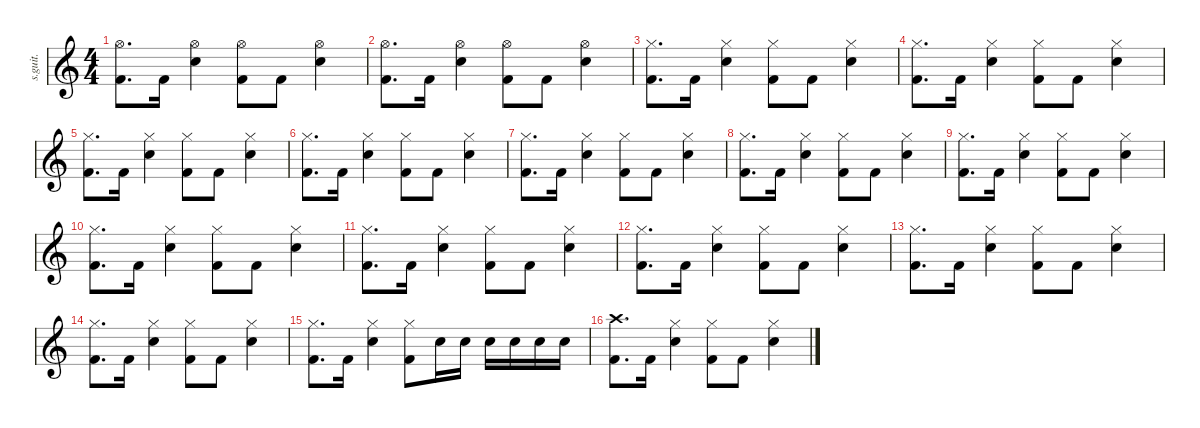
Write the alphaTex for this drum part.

\defaultSystemsLayout 4
\hideDynamics
\bracketExtendMode nobrackets
\track ("" "s.guit.") {instrument percussion}
\staff {score}
\articulation defaults
\ts (4 4)
\tempo (180 hide)
\clef g2
\ks c
("Kick (hit) 2" "Hi-Hat (open)").8{d dy f} "Kick (hit) 2".16 ("Snare (hit) 2" "Hi-Hat (open)").4 ("Kick (hit) 2" "Hi-Hat (open)").8 "Kick (hit) 2".8 ("Snare (hit) 2" "Hi-Hat (open)").4 |
("Kick (hit) 2" "Hi-Hat (open)").8{d} "Kick (hit) 2".16 ("Snare (hit) 2" "Hi-Hat (open)").4 ("Kick (hit) 2" "Hi-Hat (open)").8 "Kick (hit) 2".8 ("Snare (hit) 2" "Hi-Hat (open)").4 |
("Kick (hit) 2" "Hi-Hat (closed)").8{d} "Kick (hit) 2".16 ("Snare (hit) 2" "Hi-Hat (closed)").4 ("Kick (hit) 2" "Hi-Hat (closed)").8 "Kick (hit) 2".8 ("Snare (hit) 2" "Hi-Hat (closed)").4 |
("Kick (hit) 2" "Hi-Hat (closed)").8{d} "Kick (hit) 2".16 ("Snare (hit) 2" "Hi-Hat (closed)").4 ("Kick (hit) 2" "Hi-Hat (closed)").8 "Kick (hit) 2".8 ("Snare (hit) 2" "Hi-Hat (closed)").4 |
("Kick (hit) 2" "Hi-Hat (closed)").8{d} "Kick (hit) 2".16 ("Snare (hit) 2" "Hi-Hat (closed)").4 ("Kick (hit) 2" "Hi-Hat (closed)").8 "Kick (hit) 2".8 ("Snare (hit) 2" "Hi-Hat (closed)").4 |
("Kick (hit) 2" "Hi-Hat (closed)").8{d} "Kick (hit) 2".16 ("Snare (hit) 2" "Hi-Hat (closed)").4 ("Kick (hit) 2" "Hi-Hat (closed)").8 "Kick (hit) 2".8 ("Snare (hit) 2" "Hi-Hat (closed)").4 |
("Kick (hit) 2" "Hi-Hat (closed)").8{d} "Kick (hit) 2".16 ("Snare (hit) 2" "Hi-Hat (closed)").4 ("Kick (hit) 2" "Hi-Hat (closed)").8 "Kick (hit) 2".8 ("Snare (hit) 2" "Hi-Hat (closed)").4 |
("Kick (hit) 2" "Hi-Hat (closed)").8{d} "Kick (hit) 2".16 ("Snare (hit) 2" "Hi-Hat (closed)").4 ("Kick (hit) 2" "Hi-Hat (closed)").8 "Kick (hit) 2".8 ("Snare (hit) 2" "Hi-Hat (closed)").4 |
("Kick (hit) 2" "Hi-Hat (closed)").8{d} "Kick (hit) 2".16 ("Snare (hit) 2" "Hi-Hat (closed)").4 ("Kick (hit) 2" "Hi-Hat (closed)").8 "Kick (hit) 2".8 ("Snare (hit) 2" "Hi-Hat (closed)").4 |
("Kick (hit) 2" "Hi-Hat (closed)").8{d} "Kick (hit) 2".16 ("Snare (hit) 2" "Hi-Hat (closed)").4 ("Kick (hit) 2" "Hi-Hat (closed)").8 "Kick (hit) 2".8 ("Snare (hit) 2" "Hi-Hat (closed)").4 |
("Kick (hit) 2" "Hi-Hat (closed)").8{d} "Kick (hit) 2".16 ("Snare (hit) 2" "Hi-Hat (closed)").4 ("Kick (hit) 2" "Hi-Hat (closed)").8 "Kick (hit) 2".8 ("Snare (hit) 2" "Hi-Hat (closed)").4 |
("Kick (hit) 2" "Hi-Hat (closed)").8{d} "Kick (hit) 2".16 ("Snare (hit) 2" "Hi-Hat (closed)").4 ("Kick (hit) 2" "Hi-Hat (closed)").8 "Kick (hit) 2".8 ("Snare (hit) 2" "Hi-Hat (closed)").4 |
("Kick (hit) 2" "Hi-Hat (closed)").8{d} "Kick (hit) 2".16 ("Snare (hit) 2" "Hi-Hat (closed)").4 ("Kick (hit) 2" "Hi-Hat (closed)").8 "Kick (hit) 2".8 ("Snare (hit) 2" "Hi-Hat (closed)").4 |
("Kick (hit) 2" "Hi-Hat (closed)").8{d} "Kick (hit) 2".16 ("Snare (hit) 2" "Hi-Hat (closed)").4 ("Kick (hit) 2" "Hi-Hat (closed)").8 "Kick (hit) 2".8 ("Snare (hit) 2" "Hi-Hat (closed)").4 |
("Kick (hit) 2" "Hi-Hat (closed)").8{d} "Kick (hit) 2".16 ("Snare (hit) 2" "Hi-Hat (closed)").4 ("Kick (hit) 2" "Hi-Hat (closed)").8 "Snare (hit) 2".16 "Snare (hit) 2".16 "Snare (hit) 2".16 "Snare (hit) 2".16 "Snare (hit) 2".16 "Snare (hit) 2".16 |
("Kick (hit) 2" "Crash high (hit)").8{d} "Kick (hit) 2".16 ("Snare (hit) 2" "Hi-Hat (closed)").4 ("Kick (hit) 2" "Hi-Hat (closed)").8 "Kick (hit) 2".8 ("Snare (hit) 2" "Hi-Hat (closed)").4
